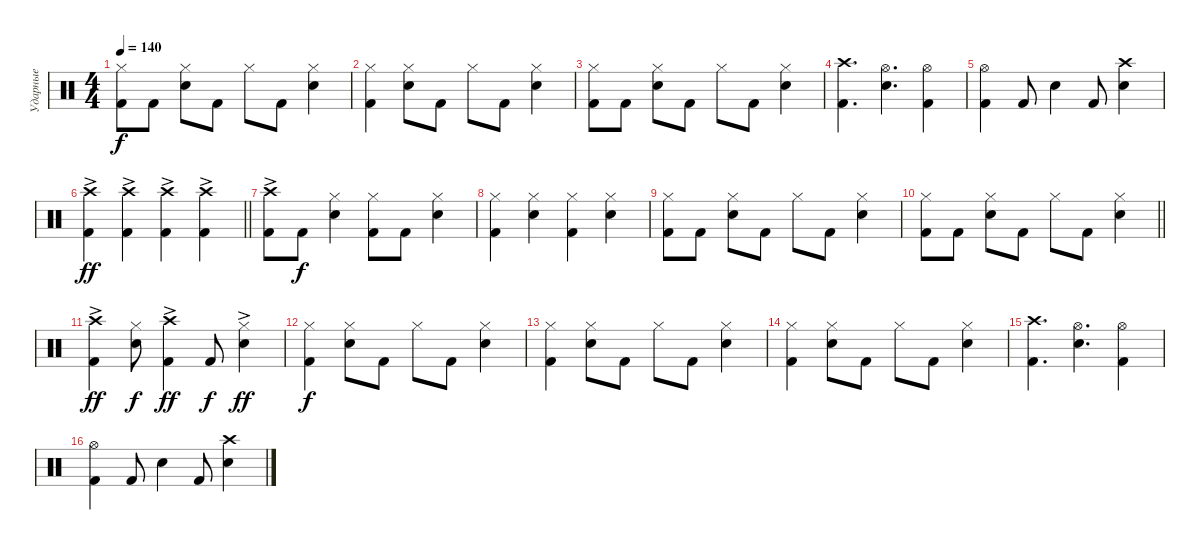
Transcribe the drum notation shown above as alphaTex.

\track ("Ударные" "Ударные") {instrument percussion}
\staff {score}
\articulation defaults
\ts (4 4)
\tempo 140
\clef neutral
\ks c
("Kick (hit) 2" "Hi-Hat (closed)").8{dy f} "Kick (hit) 2".8 ("Snare (hit) 2" "Hi-Hat (closed)").8 "Kick (hit) 2".8 "Hi-Hat (closed)".8 "Kick (hit) 2".8 ("Snare (hit) 2" "Hi-Hat (closed)").4 |
("Kick (hit) 2" "Hi-Hat (closed)").4 ("Snare (hit) 2" "Hi-Hat (closed)").8 "Kick (hit) 2".8 "Hi-Hat (closed)".8 "Kick (hit) 2".8 ("Snare (hit) 2" "Hi-Hat (closed)").4 |
("Kick (hit) 2" "Hi-Hat (closed)").8 "Kick (hit) 2".8 ("Snare (hit) 2" "Hi-Hat (closed)").8 "Kick (hit) 2".8 "Hi-Hat (closed)".8 "Kick (hit) 2".8 ("Snare (hit) 2" "Hi-Hat (closed)").4 |
("Kick (hit) 2" "Crash high (hit)").4{d} ("Snare (hit) 2" "Hi-Hat (open)").4{d} ("Kick (hit) 2" "Hi-Hat (open)").4 |
("Kick (hit) 2" "Hi-Hat (open)").4 "Kick (hit) 2".8 "Snare (hit) 2".4 "Kick (hit) 2".8 ("Snare (hit) 2" "Crash high (hit)").4 |
\barLineRight lightlight
("Kick (hit) 2" "Crash high (hit)"{ac}).4{dy ff} ("Kick (hit) 2" "Crash high (hit)"{ac}).4 ("Kick (hit) 2" "Crash high (hit)"{ac}).4 ("Kick (hit) 2" "Crash high (hit)"{ac}).4 |
("Kick (hit) 2" "Crash high (hit)"{ac}).8 "Kick (hit) 2".8{dy f} ("Snare (hit) 2" "Hi-Hat (closed)").4 ("Kick (hit) 2" "Hi-Hat (closed)").8 "Kick (hit) 2".8 ("Snare (hit) 2" "Hi-Hat (closed)").4 |
("Kick (hit) 2" "Hi-Hat (closed)").4 ("Snare (hit) 2" "Hi-Hat (closed)").4 ("Kick (hit) 2" "Hi-Hat (closed)").4 ("Snare (hit) 2" "Hi-Hat (closed)").4 |
("Kick (hit) 2" "Hi-Hat (closed)").8 "Kick (hit) 2".8 ("Snare (hit) 2" "Hi-Hat (closed)").8 "Kick (hit) 2".8 "Hi-Hat (closed)".8 "Kick (hit) 2".8 ("Snare (hit) 2" "Hi-Hat (closed)").4 |
\barLineRight lightlight
("Kick (hit) 2" "Hi-Hat (closed)").8 "Kick (hit) 2".8 ("Snare (hit) 2" "Hi-Hat (closed)").8 "Kick (hit) 2".8 "Hi-Hat (closed)".8 "Kick (hit) 2".8 ("Snare (hit) 2" "Hi-Hat (closed)").4 |
("Kick (hit) 2" "Crash high (hit)"{ac}).4{dy ff} ("Snare (hit) 2" "Hi-Hat (closed)").8{dy f} ("Kick (hit) 2" "Crash high (hit)"{ac}).4{dy ff} "Kick (hit) 2".8{dy f} ("Snare (hit) 2" "Hi-Hat (closed)"{ac}).4{dy ff} |
("Kick (hit) 2" "Hi-Hat (closed)").4{dy f} ("Snare (hit) 2" "Hi-Hat (closed)").8 "Kick (hit) 2".8 "Hi-Hat (closed)".8 "Kick (hit) 2".8 ("Snare (hit) 2" "Hi-Hat (closed)").4 |
("Kick (hit) 2" "Hi-Hat (closed)").4 ("Snare (hit) 2" "Hi-Hat (closed)").8 "Kick (hit) 2".8 "Hi-Hat (closed)".8 "Kick (hit) 2".8 ("Snare (hit) 2" "Hi-Hat (closed)").4 |
("Kick (hit) 2" "Hi-Hat (closed)").4 ("Snare (hit) 2" "Hi-Hat (closed)").8 "Kick (hit) 2".8 "Hi-Hat (closed)".8 "Kick (hit) 2".8 ("Snare (hit) 2" "Hi-Hat (closed)").4 |
("Kick (hit) 2" "Crash high (hit)").4{d} ("Snare (hit) 2" "Hi-Hat (open)").4{d} ("Kick (hit) 2" "Hi-Hat (open)").4 |
("Kick (hit) 2" "Hi-Hat (open)").4 "Kick (hit) 2".8 "Snare (hit) 2".4 "Kick (hit) 2".8 ("Snare (hit) 2" "Crash high (hit)").4
